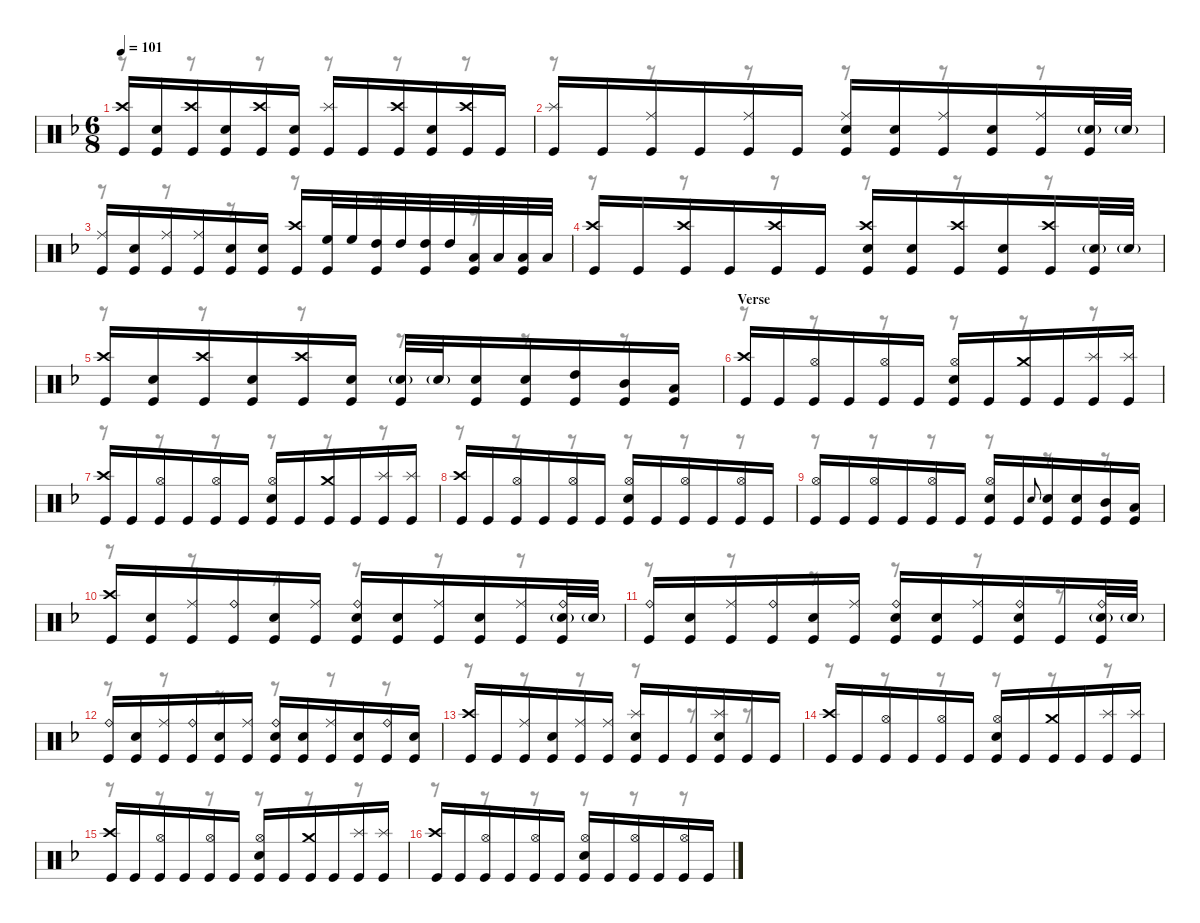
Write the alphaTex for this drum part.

\defaultSystemsLayout 4
\hideDynamics
\bracketExtendMode nobrackets
\singleTrackTrackNamePolicy hidden
\multiTrackTrackNamePolicy hidden
\otherSystemsTrackNameOrientation horizontal
\track ("M. Lopez" "drm.") {instrument percussion}
\staff {score}
\articulation defaults
\voice
\ts (6 8)
\tempo 101
\clef neutral
\ks dminor
("Crash high (hit)"{acc forcenatural} "Kick (hit)"{acc forcenatural}).16{dy f beam Up} ("Snare (hit) 2"{acc forcenatural} "Kick (hit)"{acc forcenatural}).16{beam Up} ("Crash high (hit)"{acc forcenatural} "Kick (hit)"{acc forcenatural}).16{beam Up} ("Snare (hit) 2"{acc forcenatural} "Kick (hit)"{acc forcenatural}).16{beam Up} ("Crash high (hit)"{acc forcenatural} "Kick (hit)"{acc forcenatural}).16{beam Up} ("Snare (hit) 2"{acc forcenatural} "Kick (hit)"{acc forcenatural}).16{beam Up} ("Splash (hit)"{acc forcenatural} "Kick (hit)"{acc forcenatural}).16{beam Up} "Kick (hit)"{acc forcenatural}.16{beam Up} ("Crash high (hit)"{acc forcenatural} "Kick (hit)"{acc forcenatural}).16{beam Up} ("Snare (hit) 2"{acc forcenatural} "Kick (hit)"{acc forcenatural}).16{beam Up} ("Crash high (hit)"{acc forcenatural} "Kick (hit)"{acc forcenatural}).16{beam Up} "Kick (hit)"{acc forcenatural}.16{beam Up} |
("Splash (hit)"{acc forcenatural} "Kick (hit)"{acc forcenatural}).16{beam Up} "Kick (hit)"{acc forcenatural}.16{beam Up} ("Ride (middle)"{acc forcenatural} "Kick (hit)"{acc forcenatural}).16{beam Up} "Kick (hit)"{acc forcenatural}.16{beam Up} ("Ride (middle)"{acc forcenatural} "Kick (hit)"{acc forcenatural}).16{beam Up} "Kick (hit)"{acc forcenatural}.16{beam Up} ("Ride (middle)"{acc forcenatural} "Snare (hit) 2"{acc forcenatural} "Kick (hit)"{acc forcenatural}).16{beam Up} ("Snare (hit) 2"{acc forcenatural} "Kick (hit)"{acc forcenatural}).16{beam Up} ("Ride (middle)"{acc forcenatural} "Kick (hit)"{acc forcenatural}).16{beam Up} ("Snare (hit) 2"{acc forcenatural} "Kick (hit)"{acc forcenatural}).16{beam Up} ("Ride (middle)"{acc forcenatural} "Kick (hit)"{acc forcenatural}).16{beam Up} ("Snare (hit) 2"{g acc forcenatural} "Kick (hit)"{acc forcenatural}).32{beam Up} "Snare (hit) 2"{g acc forcenatural}.32{dy ff beam Up} |
("Ride (middle)"{acc forcenatural} "Kick (hit)"{acc forcenatural}).16{dy f beam Up} ("Snare (hit) 2"{acc forcenatural} "Kick (hit)"{acc forcenatural}).16{beam Up} ("Ride (middle)"{acc forcenatural} "Kick (hit)"{acc forcenatural}).16{beam Up} ("Ride (middle)"{acc forcenatural} "Kick (hit)"{acc forcenatural}).16{beam Up} ("Snare (hit) 2"{acc forcenatural} "Kick (hit)"{acc forcenatural}).16{beam Up} ("Snare (hit) 2"{acc forcenatural} "Kick (hit)"{acc forcenatural}).16{beam Up} ("Crash high (hit)"{acc forcenatural} "Kick (hit)"{acc forcenatural}).16{beam Up} ("High Floor Tom (hit)"{acc forcenatural} "Kick (hit)"{acc forcenatural}).32{beam Up} "High Floor Tom (hit)"{acc forcenatural}.32{beam Up} ("High Tom (hit)"{acc forcenatural} "Kick (hit)"{acc forcenatural}).32{beam Up} "High Tom (hit)"{acc forcenatural}.32{beam Up} ("High Tom (hit)"{acc forcenatural} "Kick (hit)"{acc forcenatural}).32{beam Up} "High Tom (hit)"{acc forcenatural}.32{beam Up} ("Low Tom (hit)"{acc forcenatural} "Kick (hit)"{acc forcenatural}).32{beam Up} "Low Tom (hit)"{acc forcenatural}.32{beam Up} ("Low Tom (hit)"{acc forcenatural} "Kick (hit)"{acc forcenatural}).32{beam Up} "Low Tom (hit)"{acc forcenatural}.32{beam Up} |
("Crash high (hit)"{acc forcenatural} "Kick (hit)"{acc forcenatural}).16{beam Up} "Kick (hit)"{acc forcenatural}.16{beam Up} ("Crash high (hit)"{acc forcenatural} "Kick (hit)"{acc forcenatural}).16{beam Up} "Kick (hit)"{acc forcenatural}.16{beam Up} ("Crash high (hit)"{acc forcenatural} "Kick (hit)"{acc forcenatural}).16{beam Up} "Kick (hit)"{acc forcenatural}.16{beam Up} ("Crash high (hit)"{acc forcenatural} "Snare (hit) 2"{acc forcenatural} "Kick (hit)"{acc forcenatural}).16{beam Up} ("Snare (hit) 2"{acc forcenatural} "Kick (hit)"{acc forcenatural}).16{beam Up} ("Crash high (hit)"{acc forcenatural} "Kick (hit)"{acc forcenatural}).16{beam Up} ("Snare (hit) 2"{acc forcenatural} "Kick (hit)"{acc forcenatural}).16{beam Up} ("Crash high (hit)"{acc forcenatural} "Kick (hit)"{acc forcenatural}).16{beam Up} ("Snare (hit) 2"{g acc forcenatural} "Kick (hit)"{acc forcenatural}).32{beam Up} "Snare (hit) 2"{g acc forcenatural}.32{dy ff beam Up} |
("Crash high (hit)"{acc forcenatural} "Kick (hit)"{acc forcenatural}).16{dy f beam Up} ("Snare (hit) 2"{acc forcenatural} "Kick (hit)"{acc forcenatural}).16{beam Up} ("Crash high (hit)"{acc forcenatural} "Kick (hit)"{acc forcenatural}).16{beam Up} ("Snare (hit) 2"{acc forcenatural} "Kick (hit)"{acc forcenatural}).16{beam Up} ("Crash high (hit)"{acc forcenatural} "Kick (hit)"{acc forcenatural}).16{beam Up} ("Snare (hit) 2"{acc forcenatural} "Kick (hit)"{acc forcenatural}).16{beam Up} ("Snare (hit) 2"{g acc forcenatural} "Kick (hit)"{acc forcenatural}).32{beam Up} "Snare (hit) 2"{g acc forcenatural}.32{beam Up} ("Snare (hit) 2"{acc forcenatural} "Kick (hit)"{acc forcenatural}).16{beam Up} ("Snare (hit) 2"{acc forcenatural} "Kick (hit)"{acc forcenatural}).16{dy mf beam Up} ("High Tom (hit)"{acc forcenatural} "Kick (hit)"{acc forcenatural}).16{beam Up} ("Mid Tom (hit)"{acc forcenatural} "Kick (hit)"{acc forcenatural}).16{beam Up} ("Low Tom (hit)"{acc forcenatural} "Kick (hit)"{acc forcenatural}).16{beam Up} |
\section ("" "Verse")
("Crash high (hit)"{acc forcenatural} "Kick (hit)"{acc forcenatural}).16{dy f beam Up} "Kick (hit)"{acc forcenatural}.16{beam Up} ("Hi-Hat (open)"{acc forcenatural} "Kick (hit)"{acc forcenatural}).16{beam Up} "Kick (hit)"{acc forcenatural}.16{beam Up} ("Hi-Hat (open)"{acc forcenatural} "Kick (hit)"{acc forcenatural}).16{beam Up} "Kick (hit)"{acc forcenatural}.16{beam Up} ("Hi-Hat (open)"{acc forcenatural} "Snare (hit) 2"{acc forcenatural} "Kick (hit)"{acc forcenatural}).16{beam Up} "Kick (hit)"{acc forcenatural}.16{beam Up} ("Crash medium (hit)"{acc forcenatural} "Kick (hit)"{acc forcenatural}).16{beam Up} "Kick (hit)"{acc forcenatural}.16{beam Up} ("Splash (hit)"{acc forcenatural} "Kick (hit)"{acc forcenatural}).16{beam Up} ("Splash (hit)"{acc forcenatural} "Kick (hit)"{acc forcenatural}).16{beam Up} |
("Crash high (hit)"{acc forcenatural} "Kick (hit)"{acc forcenatural}).16{beam Up} "Kick (hit)"{acc forcenatural}.16{beam Up} ("Hi-Hat (open)"{acc forcenatural} "Kick (hit)"{acc forcenatural}).16{beam Up} "Kick (hit)"{acc forcenatural}.16{beam Up} ("Hi-Hat (open)"{acc forcenatural} "Kick (hit)"{acc forcenatural}).16{beam Up} "Kick (hit)"{acc forcenatural}.16{beam Up} ("Hi-Hat (open)"{acc forcenatural} "Snare (hit) 2"{acc forcenatural} "Kick (hit)"{acc forcenatural}).16{beam Up} "Kick (hit)"{acc forcenatural}.16{beam Up} ("Crash medium (hit)"{acc forcenatural} "Kick (hit)"{acc forcenatural}).16{beam Up} "Kick (hit)"{acc forcenatural}.16{beam Up} ("Splash (hit)"{acc forcenatural} "Kick (hit)"{acc forcenatural}).16{beam Up} ("Splash (hit)"{acc forcenatural} "Kick (hit)"{acc forcenatural}).16{beam Up} |
("Crash high (hit)"{acc forcenatural} "Kick (hit)"{acc forcenatural}).16{beam Up} "Kick (hit)"{acc forcenatural}.16{beam Up} ("Hi-Hat (open)"{acc forcenatural} "Kick (hit)"{acc forcenatural}).16{beam Up} "Kick (hit)"{acc forcenatural}.16{beam Up} ("Hi-Hat (open)"{acc forcenatural} "Kick (hit)"{acc forcenatural}).16{beam Up} "Kick (hit)"{acc forcenatural}.16{beam Up} ("Hi-Hat (open)"{acc forcenatural} "Snare (hit) 2"{acc forcenatural} "Kick (hit)"{acc forcenatural}).16{beam Up} "Kick (hit)"{acc forcenatural}.16{beam Up} ("Hi-Hat (open)"{acc forcenatural} "Kick (hit)"{acc forcenatural}).16{beam Up} "Kick (hit)"{acc forcenatural}.16{beam Up} ("Hi-Hat (open)"{acc forcenatural} "Kick (hit)"{acc forcenatural}).16{beam Up} "Kick (hit)"{acc forcenatural}.16{beam Up} |
("Hi-Hat (open)"{acc forcenatural} "Kick (hit)"{acc forcenatural}).16{beam Up} "Kick (hit)"{acc forcenatural}.16{beam Up} ("Hi-Hat (open)"{acc forcenatural} "Kick (hit)"{acc forcenatural}).16{beam Up} "Kick (hit)"{acc forcenatural}.16{beam Up} ("Hi-Hat (open)"{acc forcenatural} "Kick (hit)"{acc forcenatural}).16{beam Up} "Kick (hit)"{acc forcenatural}.16{beam Up} ("Hi-Hat (open)"{acc forcenatural} "Snare (hit) 2"{acc forcenatural} "Kick (hit)"{acc forcenatural}).16{beam Up} "Kick (hit)"{acc forcenatural}.16{beam Up} "Electric Snare (hit)"{acc forcenatural}.8{gr onbeat dy mf beam Up} ("Snare (hit) 2"{acc forcenatural} "Kick (hit)"{acc forcenatural}).16{dy f beam Up} ("Snare (hit) 2"{acc forcenatural} "Kick (hit)"{acc forcenatural}).16{beam Up} ("Mid Tom (hit)"{acc forcenatural} "Kick (hit)"{acc forcenatural}).16{beam Up} ("Low Tom (hit)"{acc forcenatural} "Kick (hit)"{acc forcenatural}).16{beam Up} |
("Crash high (hit)"{acc forcenatural} "Kick (hit)"{acc forcenatural}).16{beam Up} ("Snare (hit) 2"{acc forcenatural} "Kick (hit)"{acc forcenatural}).16{dy mf beam Up} ("Ride (middle)"{acc forcenatural} "Kick (hit)"{acc forcenatural}).16{dy f beam Up} ("Ride (bell)"{acc forcenatural} "Kick (hit)"{acc forcenatural}).16{beam Up} ("Snare (hit) 2"{acc forcenatural} "Kick (hit)"{acc forcenatural}).16{beam Up} ("Ride (middle)"{acc forcenatural} "Kick (hit)"{acc forcenatural}).16{beam Up} ("Ride (bell)"{acc forcenatural} "Snare (hit) 2"{acc forcenatural} "Kick (hit)"{acc forcenatural}).16{beam Up} ("Snare (hit) 2"{acc forcenatural} "Kick (hit)"{acc forcenatural}).16{beam Up} ("Ride (middle)"{acc forcenatural} "Kick (hit)"{acc forcenatural}).16{beam Up} ("Snare (hit) 2"{acc forcenatural} "Kick (hit)"{acc forcenatural}).16{beam Up} ("Ride (middle)"{acc forcenatural} "Kick (hit)"{acc forcenatural}).16{beam Up} ("Ride (bell)"{acc forcenatural} "Snare (hit) 2"{g acc forcenatural} "Kick (hit)"{acc forcenatural}).32{beam Up} "Snare (hit) 2"{g acc forcenatural}.32{dy mf beam Up} |
("Ride (bell)"{acc forcenatural} "Kick (hit)"{acc forcenatural}).16{dy f beam Up} ("Snare (hit) 2"{acc forcenatural} "Kick (hit)"{acc forcenatural}).16{beam Up} ("Ride (middle)"{acc forcenatural} "Kick (hit)"{acc forcenatural}).16{beam Up} ("Ride (bell)"{acc forcenatural} "Kick (hit)"{acc forcenatural}).16{beam Up} ("Snare (hit) 2"{acc forcenatural} "Kick (hit)"{acc forcenatural}).16{beam Up} ("Ride (middle)"{acc forcenatural} "Kick (hit)"{acc forcenatural}).16{beam Up} ("Ride (bell)"{acc forcenatural} "Snare (hit) 2"{acc forcenatural} "Kick (hit)"{acc forcenatural}).16{beam Up} ("Snare (hit) 2"{acc forcenatural} "Kick (hit)"{acc forcenatural}).16{beam Up} ("Ride (middle)"{acc forcenatural} "Kick (hit)"{acc forcenatural}).16{beam Up} ("Ride (bell)"{acc forcenatural} "Snare (hit) 2"{acc forcenatural} "Kick (hit)"{acc forcenatural}).16{beam Up} "Kick (hit)"{acc forcenatural}.16{beam Up} ("Ride (bell)"{acc forcenatural} "Snare (hit) 2"{g acc forcenatural} "Kick (hit)"{acc forcenatural}).32{beam Up} "Snare (hit) 2"{g acc forcenatural}.32{dy mf beam Up} |
("Ride (bell)"{acc forcenatural} "Kick (hit)"{acc forcenatural}).16{dy f beam Up} ("Snare (hit) 2"{acc forcenatural} "Kick (hit)"{acc forcenatural}).16{dy mf beam Up} ("Ride (middle)"{acc forcenatural} "Kick (hit)"{acc forcenatural}).16{dy f beam Up} ("Ride (bell)"{acc forcenatural} "Kick (hit)"{acc forcenatural}).16{beam Up} ("Snare (hit) 2"{acc forcenatural} "Kick (hit)"{acc forcenatural}).16{beam Up} ("Ride (middle)"{acc forcenatural} "Kick (hit)"{acc forcenatural}).16{beam Up} ("Ride (bell)"{acc forcenatural} "Snare (hit) 2"{acc forcenatural} "Kick (hit)"{acc forcenatural}).16{beam Up} ("Snare (hit) 2"{acc forcenatural} "Kick (hit)"{acc forcenatural}).16{beam Up} ("Ride (middle)"{acc forcenatural} "Kick (hit)"{acc forcenatural}).16{beam Up} ("Snare (hit) 2"{acc forcenatural} "Kick (hit)"{acc forcenatural}).16{beam Up} ("Ride (bell)"{acc forcenatural} "Kick (hit)"{acc forcenatural}).16{beam Up} ("Snare (hit) 2"{acc forcenatural} "Kick (hit)"{acc forcenatural}).16{beam Up} |
("Crash high (hit)"{acc forcenatural} "Kick (hit)"{acc forcenatural}).16{beam Up} "Kick (hit)"{acc forcenatural}.16{beam Up} ("Ride (middle)"{acc forcenatural} "Kick (hit)"{acc forcenatural}).16{beam Up} ("Snare (hit) 2"{acc forcenatural} "Kick (hit)"{acc forcenatural}).16{dy mf beam Up} ("Ride (middle)"{acc forcenatural} "Kick (hit)"{acc forcenatural}).16{dy f beam Up} ("Ride (middle)"{acc forcenatural} "Kick (hit)"{acc forcenatural}).16{dy mf beam Up} ("Splash (hit)"{acc forcenatural} "Snare (hit) 2"{acc forcenatural} "Kick (hit)"{acc forcenatural}).16{dy f beam Up} "Kick (hit)"{acc forcenatural}.16{beam Up} "Kick (hit)"{acc forcenatural}.16{beam Up} ("Splash (hit)"{acc forcenatural} "Snare (hit) 2"{acc forcenatural} "Kick (hit)"{acc forcenatural}).16{beam Up} "Kick (hit)"{acc forcenatural}.16{beam Up} "Kick (hit)"{acc forcenatural}.16{beam Up} |
("Crash high (hit)"{acc forcenatural} "Kick (hit)"{acc forcenatural}).16{beam Up} "Kick (hit)"{acc forcenatural}.16{beam Up} ("Hi-Hat (open)"{acc forcenatural} "Kick (hit)"{acc forcenatural}).16{beam Up} "Kick (hit)"{acc forcenatural}.16{beam Up} ("Hi-Hat (open)"{acc forcenatural} "Kick (hit)"{acc forcenatural}).16{beam Up} "Kick (hit)"{acc forcenatural}.16{beam Up} ("Hi-Hat (open)"{acc forcenatural} "Snare (hit) 2"{acc forcenatural} "Kick (hit)"{acc forcenatural}).16{beam Up} "Kick (hit)"{acc forcenatural}.16{beam Up} ("Crash medium (hit)"{acc forcenatural} "Kick (hit)"{acc forcenatural}).16{beam Up} "Kick (hit)"{acc forcenatural}.16{beam Up} ("Splash (hit)"{acc forcenatural} "Kick (hit)"{acc forcenatural}).16{beam Up} ("Splash (hit)"{acc forcenatural} "Kick (hit)"{acc forcenatural}).16{beam Up} |
("Crash high (hit)"{acc forcenatural} "Kick (hit)"{acc forcenatural}).16{beam Up} "Kick (hit)"{acc forcenatural}.16{beam Up} ("Hi-Hat (open)"{acc forcenatural} "Kick (hit)"{acc forcenatural}).16{beam Up} "Kick (hit)"{acc forcenatural}.16{beam Up} ("Hi-Hat (open)"{acc forcenatural} "Kick (hit)"{acc forcenatural}).16{beam Up} "Kick (hit)"{acc forcenatural}.16{beam Up} ("Hi-Hat (open)"{acc forcenatural} "Snare (hit) 2"{acc forcenatural} "Kick (hit)"{acc forcenatural}).16{beam Up} "Kick (hit)"{acc forcenatural}.16{beam Up} ("Crash medium (hit)"{acc forcenatural} "Kick (hit)"{acc forcenatural}).16{beam Up} "Kick (hit)"{acc forcenatural}.16{beam Up} ("Splash (hit)"{acc forcenatural} "Kick (hit)"{acc forcenatural}).16{beam Up} ("Splash (hit)"{acc forcenatural} "Kick (hit)"{acc forcenatural}).16{beam Up} |
("Crash high (hit)"{acc forcenatural} "Kick (hit)"{acc forcenatural}).16{beam Up} "Kick (hit)"{acc forcenatural}.16{beam Up} ("Hi-Hat (open)"{acc forcenatural} "Kick (hit)"{acc forcenatural}).16{beam Up} "Kick (hit)"{acc forcenatural}.16{beam Up} ("Hi-Hat (open)"{acc forcenatural} "Kick (hit)"{acc forcenatural}).16{beam Up} "Kick (hit)"{acc forcenatural}.16{beam Up} ("Hi-Hat (open)"{acc forcenatural} "Snare (hit) 2"{acc forcenatural} "Kick (hit)"{acc forcenatural}).16{beam Up} "Kick (hit)"{acc forcenatural}.16{beam Up} ("Hi-Hat (open)"{acc forcenatural} "Kick (hit)"{acc forcenatural}).16{beam Up} "Kick (hit)"{acc forcenatural}.16{beam Up} ("Hi-Hat (open)"{acc forcenatural} "Kick (hit)"{acc forcenatural}).16{beam Up} "Kick (hit)"{acc forcenatural}.16{beam Up}
\voice
\clef neutral
\ottava regular
\simile none
\ks dminor
r.8{dy mf beam Down} r.8{beam Down} r.8{beam Down} r.8{beam Down} r.8{beam Down} r.8{beam Down} |
r.8{beam Down} r.8{beam Down} r.8{beam Down} r.8{beam Down} r.8{beam Down} r.8{beam Down} |
r.8{beam Down} r.8{beam Down} r.8{beam Down} r.8{beam Down} r.8{beam Down} r.8{beam Down} |
r.8{beam Down} r.8{beam Down} r.8{beam Down} r.8{beam Down} r.8{beam Down} r.8{beam Down} |
r.8{beam Down} r.8{beam Down} r.8{beam Down} r.8{beam Down} r.8{beam Down} r.8{beam Down} |
r.8{beam Down} r.8{beam Down} r.8{beam Down} r.8{beam Down} r.8{beam Down} r.8{beam Down} |
r.8{beam Down} r.8{beam Down} r.8{beam Down} r.8{beam Down} r.8{beam Down} r.8{beam Down} |
r.8{beam Down} r.8{beam Down} r.8{beam Down} r.8{beam Down} r.8{beam Down} r.8{beam Down} |
r.8{beam Down} r.8{beam Down} r.8{beam Down} r.8{beam Down} r.8{beam Down} r.8{beam Down} |
r.8{beam Down} r.8{beam Down} r.8{beam Down} r.8{beam Down} r.8{beam Down} r.8{beam Down} |
r.8{beam Down} r.8{beam Down} r.8{beam Down} r.8{beam Down} r.8{beam Down} r.8{beam Down} |
r.8{beam Down} r.8{beam Down} r.8{beam Down} r.8{beam Down} r.8{beam Down} r.8{beam Down} |
r.8{beam Down} r.8{beam Down} r.8{beam Down} r.8{beam Down} r.8{beam Down} r.8{beam Down} |
r.8{beam Down} r.8{beam Down} r.8{beam Down} r.8{beam Down} r.8{beam Down} r.8{beam Down} |
r.8{beam Down} r.8{beam Down} r.8{beam Down} r.8{beam Down} r.8{beam Down} r.8{beam Down} |
r.8{beam Down} r.8{beam Down} r.8{beam Down} r.8{beam Down} r.8{beam Down} r.8{beam Down}
